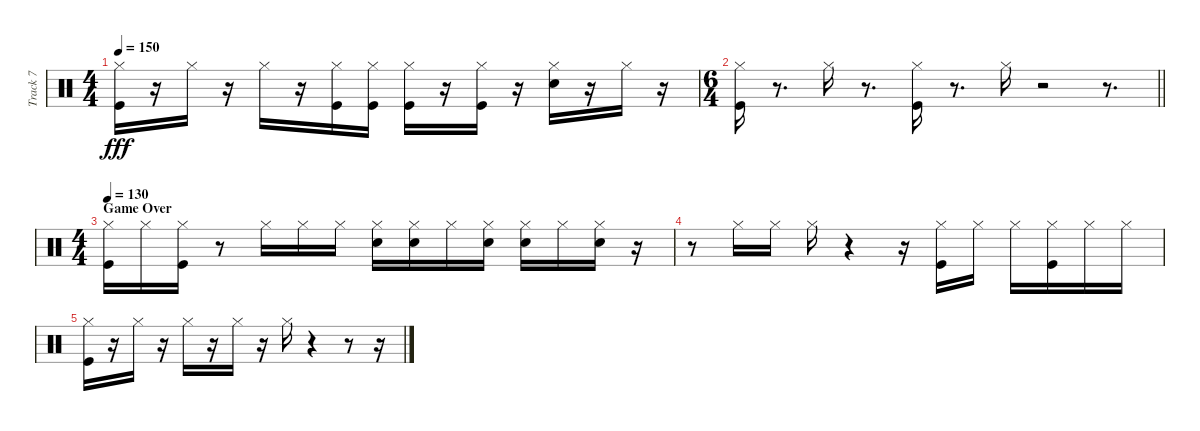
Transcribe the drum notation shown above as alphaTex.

\track ("Track 7" "Track 7") {instrument percussion}
\staff {score}
\articulation defaults
\ts (4 4)
\tempo 150
\clef neutral
\ks c
("Kick (hit)" "Hi-Hat (closed)").16{dy fff} r.16 "Hi-Hat (closed)".16 r.16 "Hi-Hat (closed)".16 r.16 ("Kick (hit)" "Hi-Hat (closed)").16 ("Kick (hit)" "Hi-Hat (closed)").16 ("Kick (hit)" "Hi-Hat (closed)").16 r.16 ("Kick (hit)" "Hi-Hat (closed)").16 r.16 ("Snare (hit) 2" "Hi-Hat (closed)").16 r.16 "Hi-Hat (closed)".16 r.16 |
\ts (6 4)
\barLineRight lightlight
("Kick (hit)" "Hi-Hat (closed)").16 r.8{d} "Hi-Hat (closed)".16 r.8{d} ("Kick (hit)" "Hi-Hat (closed)").16 r.8{d} "Hi-Hat (closed)".16 r.2 r.8{d} |
\ts (4 4)
\section ("" "Game Over")
\tempo 130
("Hi-Hat (closed)" "Kick (hit)").16 "Hi-Hat (closed)".16 ("Hi-Hat (closed)" "Kick (hit)").16 r.8 "Hi-Hat (closed)".16 "Hi-Hat (closed)".16 "Hi-Hat (closed)".16 ("Hi-Hat (closed)" "Snare (hit) 2").16 ("Hi-Hat (closed)" "Snare (hit) 2").16 "Hi-Hat (closed)".16 ("Hi-Hat (closed)" "Snare (hit) 2").16 ("Hi-Hat (closed)" "Snare (hit) 2").16 "Hi-Hat (closed)".16 ("Hi-Hat (closed)" "Snare (hit) 2").16 r.16 |
r.8 "Hi-Hat (closed)".16 "Hi-Hat (closed)".16 "Hi-Hat (closed)".16 r.4 r.16 ("Hi-Hat (closed)" "Kick (hit)").16 "Hi-Hat (closed)".16 "Hi-Hat (closed)".16 ("Hi-Hat (closed)" "Kick (hit)").16 "Hi-Hat (closed)".16 "Hi-Hat (closed)".16 |
("Hi-Hat (closed)" "Kick (hit)").16 r.16 "Hi-Hat (closed)".16 r.16 "Hi-Hat (closed)".16 r.16 "Hi-Hat (closed)".16 r.16 "Hi-Hat (closed)".16 r.4 r.8 r.16
